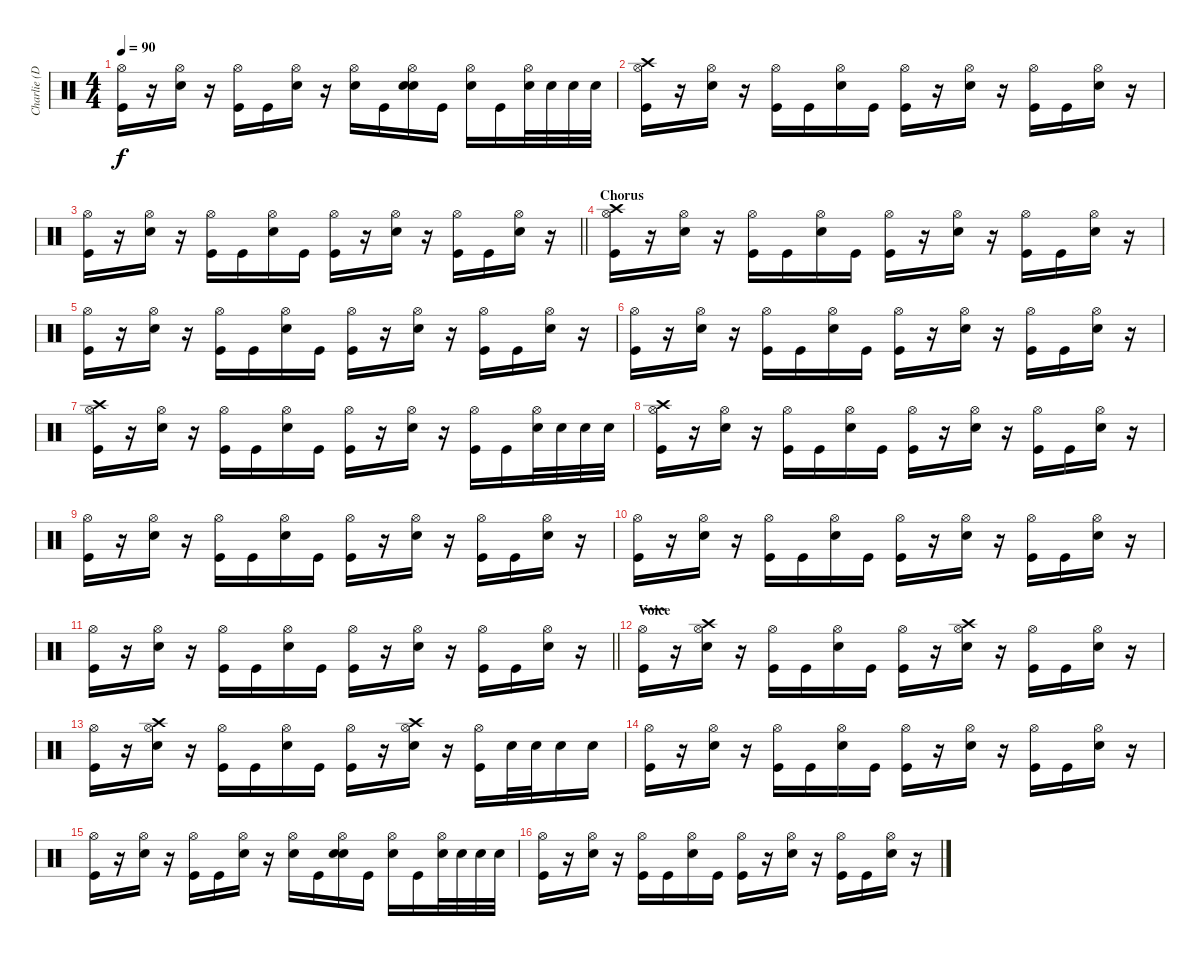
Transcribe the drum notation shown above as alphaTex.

\track ("Charlie (Drums)" "Charlie (D") {instrument percussion}
\staff {score}
\articulation defaults
\ts (4 4)
\tempo 90
\clef neutral
\ks c
("Hi-Hat (open)" "Kick (hit)").16{dy f} r.16 ("Hi-Hat (open)" "Electric Snare (hit)").16 r.16 ("Hi-Hat (open)" "Kick (hit)").16 "Kick (hit)".16 ("Hi-Hat (open)" "Electric Snare (hit)").16 r.16 ("Hi-Hat (open)" "Electric Snare (hit)").16 "Kick (hit)".16 ("Hi-Hat (open)" "Electric Snare (hit)" "Electric Snare (hit)").16 "Kick (hit)".16 ("Hi-Hat (open)" "Electric Snare (hit)").16 "Kick (hit)".16 ("Hi-Hat (open)" "Electric Snare (hit)").32 "Electric Snare (hit)".32 "Electric Snare (hit)".32 "Electric Snare (hit)".32 |
("Crash high (hit)" "Hi-Hat (open)" "Kick (hit)").16 r.16 ("Hi-Hat (open)" "Electric Snare (hit)").16 r.16 ("Hi-Hat (open)" "Kick (hit)").16 "Kick (hit)".16 ("Hi-Hat (open)" "Electric Snare (hit)").16 "Kick (hit)".16 ("Hi-Hat (open)" "Kick (hit)").16 r.16 ("Hi-Hat (open)" "Electric Snare (hit)").16 r.16 ("Hi-Hat (open)" "Kick (hit)").16 "Kick (hit)".16 ("Hi-Hat (open)" "Electric Snare (hit)").16 r.16 |
\barLineRight lightlight
("Hi-Hat (open)" "Kick (hit)").16 r.16 ("Hi-Hat (open)" "Electric Snare (hit)").16 r.16 ("Hi-Hat (open)" "Kick (hit)").16 "Kick (hit)".16 ("Hi-Hat (open)" "Electric Snare (hit)").16 "Kick (hit)".16 ("Hi-Hat (open)" "Kick (hit)").16 r.16 ("Hi-Hat (open)" "Electric Snare (hit)").16 r.16 ("Hi-Hat (open)" "Kick (hit)").16 "Kick (hit)".16 ("Hi-Hat (open)" "Electric Snare (hit)").16 r.16 |
\section ("" "Chorus")
("Crash high (hit)" "Hi-Hat (open)" "Kick (hit)").16 r.16 ("Hi-Hat (open)" "Electric Snare (hit)").16 r.16 ("Hi-Hat (open)" "Kick (hit)").16 "Kick (hit)".16 ("Hi-Hat (open)" "Electric Snare (hit)").16 "Kick (hit)".16 ("Hi-Hat (open)" "Kick (hit)").16 r.16 ("Hi-Hat (open)" "Electric Snare (hit)").16 r.16 ("Hi-Hat (open)" "Kick (hit)").16 "Kick (hit)".16 ("Hi-Hat (open)" "Electric Snare (hit)").16 r.16 |
("Hi-Hat (open)" "Kick (hit)").16 r.16 ("Hi-Hat (open)" "Electric Snare (hit)").16 r.16 ("Hi-Hat (open)" "Kick (hit)").16 "Kick (hit)".16 ("Hi-Hat (open)" "Electric Snare (hit)").16 "Kick (hit)".16 ("Hi-Hat (open)" "Kick (hit)").16 r.16 ("Hi-Hat (open)" "Electric Snare (hit)").16 r.16 ("Hi-Hat (open)" "Kick (hit)").16 "Kick (hit)".16 ("Hi-Hat (open)" "Electric Snare (hit)").16 r.16 |
("Hi-Hat (open)" "Kick (hit)").16 r.16 ("Hi-Hat (open)" "Electric Snare (hit)").16 r.16 ("Hi-Hat (open)" "Kick (hit)").16 "Kick (hit)".16 ("Hi-Hat (open)" "Electric Snare (hit)").16 "Kick (hit)".16 ("Hi-Hat (open)" "Kick (hit)").16 r.16 ("Hi-Hat (open)" "Electric Snare (hit)").16 r.16 ("Hi-Hat (open)" "Kick (hit)").16 "Kick (hit)".16 ("Hi-Hat (open)" "Electric Snare (hit)").16 r.16 |
("Crash high (hit)" "Hi-Hat (open)" "Kick (hit)").16 r.16 ("Hi-Hat (open)" "Electric Snare (hit)").16 r.16 ("Hi-Hat (open)" "Kick (hit)").16 "Kick (hit)".16 ("Hi-Hat (open)" "Electric Snare (hit)").16 "Kick (hit)".16 ("Hi-Hat (open)" "Kick (hit)").16 r.16 ("Hi-Hat (open)" "Electric Snare (hit)").16 r.16 ("Hi-Hat (open)" "Kick (hit)").16 "Kick (hit)".16 ("Hi-Hat (open)" "Electric Snare (hit)").32 "Electric Snare (hit)".32 "Electric Snare (hit)".32 "Electric Snare (hit)".32 |
("Crash high (hit)" "Hi-Hat (open)" "Kick (hit)").16 r.16 ("Hi-Hat (open)" "Electric Snare (hit)").16 r.16 ("Hi-Hat (open)" "Kick (hit)").16 "Kick (hit)".16 ("Hi-Hat (open)" "Electric Snare (hit)").16 "Kick (hit)".16 ("Hi-Hat (open)" "Kick (hit)").16 r.16 ("Hi-Hat (open)" "Electric Snare (hit)").16 r.16 ("Hi-Hat (open)" "Kick (hit)").16 "Kick (hit)".16 ("Hi-Hat (open)" "Electric Snare (hit)").16 r.16 |
("Hi-Hat (open)" "Kick (hit)").16 r.16 ("Hi-Hat (open)" "Electric Snare (hit)").16 r.16 ("Hi-Hat (open)" "Kick (hit)").16 "Kick (hit)".16 ("Hi-Hat (open)" "Electric Snare (hit)").16 "Kick (hit)".16 ("Hi-Hat (open)" "Kick (hit)").16 r.16 ("Hi-Hat (open)" "Electric Snare (hit)").16 r.16 ("Hi-Hat (open)" "Kick (hit)").16 "Kick (hit)".16 ("Hi-Hat (open)" "Electric Snare (hit)").16 r.16 |
("Hi-Hat (open)" "Kick (hit)").16 r.16 ("Hi-Hat (open)" "Electric Snare (hit)").16 r.16 ("Hi-Hat (open)" "Kick (hit)").16 "Kick (hit)".16 ("Hi-Hat (open)" "Electric Snare (hit)").16 "Kick (hit)".16 ("Hi-Hat (open)" "Kick (hit)").16 r.16 ("Hi-Hat (open)" "Electric Snare (hit)").16 r.16 ("Hi-Hat (open)" "Kick (hit)").16 "Kick (hit)".16 ("Hi-Hat (open)" "Electric Snare (hit)").16 r.16 |
\barLineRight lightlight
("Hi-Hat (open)" "Kick (hit)").16 r.16 ("Hi-Hat (open)" "Electric Snare (hit)").16 r.16 ("Hi-Hat (open)" "Kick (hit)").16 "Kick (hit)".16 ("Hi-Hat (open)" "Electric Snare (hit)").16 "Kick (hit)".16 ("Hi-Hat (open)" "Kick (hit)").16 r.16 ("Hi-Hat (open)" "Electric Snare (hit)").16 r.16 ("Hi-Hat (open)" "Kick (hit)").16 "Kick (hit)".16 ("Hi-Hat (open)" "Electric Snare (hit)").16 r.16 |
\section ("" "Voice")
("Hi-Hat (open)"{v} "Kick (hit)").16 r.16 ("Crash high (hit)" "Hi-Hat (open)" "Electric Snare (hit)").16 r.16 ("Hi-Hat (open)" "Kick (hit)").16 "Kick (hit)".16 ("Hi-Hat (open)" "Electric Snare (hit)").16 "Kick (hit)".16 ("Hi-Hat (open)" "Kick (hit)").16 r.16 ("Crash high (hit)" "Hi-Hat (open)" "Electric Snare (hit)").16 r.16 ("Hi-Hat (open)" "Kick (hit)").16 "Kick (hit)".16 ("Hi-Hat (open)" "Electric Snare (hit)").16 r.16 |
("Hi-Hat (open)" "Kick (hit)").16 r.16 ("Crash high (hit)" "Hi-Hat (open)" "Electric Snare (hit)").16 r.16 ("Hi-Hat (open)" "Kick (hit)").16 "Kick (hit)".16 ("Hi-Hat (open)" "Electric Snare (hit)").16 "Kick (hit)".16 ("Hi-Hat (open)" "Kick (hit)").16 r.16 ("Crash high (hit)" "Hi-Hat (open)" "Electric Snare (hit)").16 r.16 ("Hi-Hat (open)" "Kick (hit)").16 "Electric Snare (hit)".32 "Electric Snare (hit)".32 "Electric Snare (hit)".16 "Electric Snare (hit)".16 |
("Hi-Hat (open)" "Kick (hit)").16 r.16 ("Hi-Hat (open)" "Electric Snare (hit)").16 r.16 ("Hi-Hat (open)" "Kick (hit)").16 "Kick (hit)".16 ("Hi-Hat (open)" "Electric Snare (hit)").16 "Kick (hit)".16 ("Hi-Hat (open)" "Kick (hit)").16 r.16 ("Hi-Hat (open)" "Electric Snare (hit)").16 r.16 ("Hi-Hat (open)" "Kick (hit)").16 "Kick (hit)".16 ("Hi-Hat (open)" "Electric Snare (hit)").16 r.16 |
("Hi-Hat (open)" "Kick (hit)").16 r.16 ("Hi-Hat (open)" "Electric Snare (hit)").16 r.16 ("Hi-Hat (open)" "Kick (hit)").16 "Kick (hit)".16 ("Hi-Hat (open)" "Electric Snare (hit)").16 r.16 ("Hi-Hat (open)" "Electric Snare (hit)").16 "Kick (hit)".16 ("Hi-Hat (open)" "Electric Snare (hit)" "Electric Snare (hit)").16 "Kick (hit)".16 ("Hi-Hat (open)" "Electric Snare (hit)").16 "Kick (hit)".16 ("Hi-Hat (open)" "Electric Snare (hit)").32 "Electric Snare (hit)".32 "Electric Snare (hit)".32 "Electric Snare (hit)".32 |
("Hi-Hat (open)" "Kick (hit)").16 r.16 ("Hi-Hat (open)" "Electric Snare (hit)").16 r.16 ("Hi-Hat (open)" "Kick (hit)").16 "Kick (hit)".16 ("Hi-Hat (open)" "Electric Snare (hit)").16 "Kick (hit)".16 ("Hi-Hat (open)" "Kick (hit)").16 r.16 ("Hi-Hat (open)" "Electric Snare (hit)").16 r.16 ("Hi-Hat (open)" "Kick (hit)").16 "Kick (hit)".16 ("Hi-Hat (open)" "Electric Snare (hit)").16 r.16
